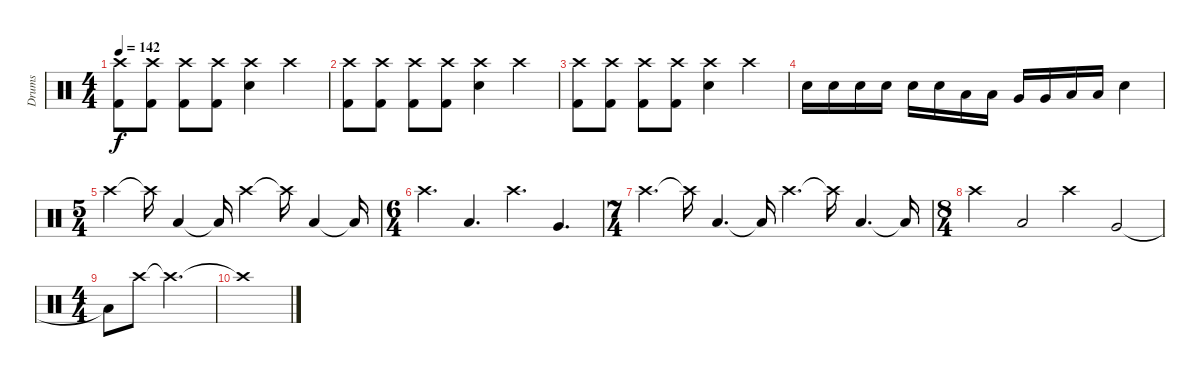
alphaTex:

\track ("Drums" "Drums") {instrument percussion}
\staff {score}
\articulation defaults
\ts (4 4)
\tempo 142
\clef neutral
\ks c
("Crash high (hit)" "Kick (hit) 2").8{dy f} ("Crash high (hit)" "Kick (hit) 2").8 ("Crash high (hit)" "Kick (hit) 2").8 ("Crash high (hit)" "Kick (hit) 2").8 ("Crash high (hit)" "Snare (hit) 2").4 "Crash high (hit)".4 |
("Crash high (hit)" "Kick (hit) 2").8 ("Crash high (hit)" "Kick (hit) 2").8 ("Crash high (hit)" "Kick (hit) 2").8 ("Crash high (hit)" "Kick (hit) 2").8 ("Crash high (hit)" "Snare (hit) 2").4 "Crash high (hit)".4 |
("Crash high (hit)" "Kick (hit) 2").8 ("Crash high (hit)" "Kick (hit) 2").8 ("Crash high (hit)" "Kick (hit) 2").8 ("Crash high (hit)" "Kick (hit) 2").8 ("Crash high (hit)" "Snare (hit) 2").4 "Crash high (hit)".4 |
"Snare (hit) 2".16 "Snare (hit) 2".16 "Snare (hit) 2".16 "Snare (hit) 2".16 "Snare (hit) 2".16 "Snare (hit) 2".16 "Low Tom (hit)".16 "Low Tom (hit)".16 "Very Low Tom (hit)".16 "Very Low Tom (hit)".16 "Low Floor Tom (hit)".16 "Low Floor Tom (hit)".16 "Snare (hit) 2".4 |
\ts (5 4)
"Crash high (hit)".4 "Crash high (hit)"{t}.16 "Low Tom (hit)".4 "Low Tom (hit)"{t}.16 "Crash high (hit)".4 "Crash high (hit)"{t}.16 "Low Tom (hit)".4 "Low Tom (hit)"{t}.16 |
\ts (6 4)
"Crash high (hit)".4{d} "Low Tom (hit)".4{d} "Crash high (hit)".4{d} "Very Low Tom (hit)".4{d} |
\ts (7 4)
"Crash high (hit)".4{d} "Crash high (hit)"{t}.16 "Low Tom (hit)".4{d} "Low Tom (hit)"{t}.16 "Crash high (hit)".4{d} "Crash high (hit)"{t}.16 "Low Tom (hit)".4{d} "Low Tom (hit)"{t}.16 |
\ts (8 4)
"Crash high (hit)".2 "Low Tom (hit)".2 "Crash high (hit)".2 "Very Low Tom (hit)".2 |
\ts (4 4)
"Low Tom (hit)"{t}.8 "Crash high (hit)".8 "Crash high (hit)"{t}.2{d} |
"Crash high (hit)"{t}.1
